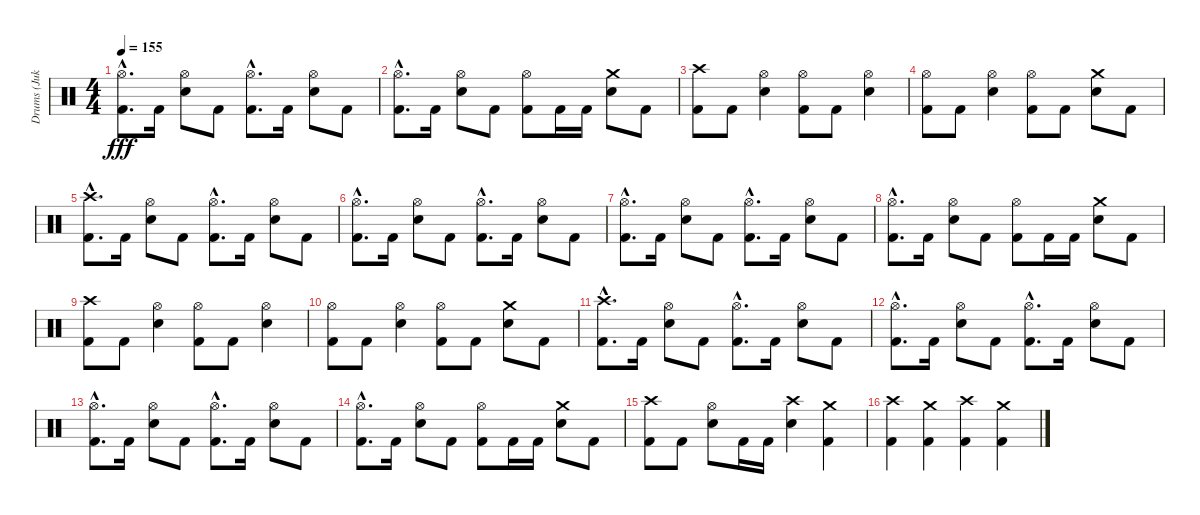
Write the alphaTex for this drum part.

\track ("Drums (Jukka)" "Drums (Juk") {instrument percussion}
\staff {score}
\articulation defaults
\ts (4 4)
\tempo 155
\clef neutral
\ks c
("Kick (hit) 2"{hac} "Hi-Hat (open)"{hac}).8{d dy fff} "Kick (hit) 2".16 ("Snare (hit) 2" "Hi-Hat (open)").8 "Kick (hit) 2".8 ("Kick (hit) 2"{hac} "Hi-Hat (open)"{hac}).8{d} "Kick (hit) 2".16 ("Snare (hit) 2" "Hi-Hat (open)").8 "Kick (hit) 2".8 |
("Kick (hit) 2"{hac} "Hi-Hat (open)"{hac}).8{d} "Kick (hit) 2".16 ("Snare (hit) 2" "Hi-Hat (open)").8 "Kick (hit) 2".8 ("Kick (hit) 2" "Hi-Hat (open)").8 "Kick (hit) 2".16 "Kick (hit) 2".16 ("Snare (hit) 2" "Crash medium (hit)").8 "Kick (hit) 2".8 |
("Kick (hit) 2" "Crash high (hit)").8 "Kick (hit) 2".8 ("Snare (hit) 2" "Hi-Hat (open)").4 ("Kick (hit) 2" "Hi-Hat (open)").8 "Kick (hit) 2".8 ("Snare (hit) 2" "Hi-Hat (open)").4 |
("Kick (hit) 2" "Hi-Hat (open)").8 "Kick (hit) 2".8 ("Snare (hit) 2" "Hi-Hat (open)").4 ("Kick (hit) 2" "Hi-Hat (open)").8 "Kick (hit) 2".8 ("Snare (hit) 2" "Crash medium (hit)").8 "Kick (hit) 2".8 |
("Kick (hit) 2"{hac} "Crash high (hit)"{hac}).8{d} "Kick (hit) 2".16 ("Snare (hit) 2" "Hi-Hat (open)").8 "Kick (hit) 2".8 ("Kick (hit) 2"{hac} "Hi-Hat (open)"{hac}).8{d} "Kick (hit) 2".16 ("Snare (hit) 2" "Hi-Hat (open)").8 "Kick (hit) 2".8 |
("Kick (hit) 2"{hac} "Hi-Hat (open)"{hac}).8{d} "Kick (hit) 2".16 ("Snare (hit) 2" "Hi-Hat (open)").8 "Kick (hit) 2".8 ("Kick (hit) 2"{hac} "Hi-Hat (open)"{hac}).8{d} "Kick (hit) 2".16 ("Snare (hit) 2" "Hi-Hat (open)").8 "Kick (hit) 2".8 |
("Kick (hit) 2"{hac} "Hi-Hat (open)"{hac}).8{d} "Kick (hit) 2".16 ("Snare (hit) 2" "Hi-Hat (open)").8 "Kick (hit) 2".8 ("Kick (hit) 2"{hac} "Hi-Hat (open)"{hac}).8{d} "Kick (hit) 2".16 ("Snare (hit) 2" "Hi-Hat (open)").8 "Kick (hit) 2".8 |
("Kick (hit) 2"{hac} "Hi-Hat (open)"{hac}).8{d} "Kick (hit) 2".16 ("Snare (hit) 2" "Hi-Hat (open)").8 "Kick (hit) 2".8 ("Kick (hit) 2" "Hi-Hat (open)").8 "Kick (hit) 2".16 "Kick (hit) 2".16 ("Snare (hit) 2" "Crash medium (hit)").8 "Kick (hit) 2".8 |
("Kick (hit) 2" "Crash high (hit)").8 "Kick (hit) 2".8 ("Snare (hit) 2" "Hi-Hat (open)").4 ("Kick (hit) 2" "Hi-Hat (open)").8 "Kick (hit) 2".8 ("Snare (hit) 2" "Hi-Hat (open)").4 |
("Kick (hit) 2" "Hi-Hat (open)").8 "Kick (hit) 2".8 ("Snare (hit) 2" "Hi-Hat (open)").4 ("Kick (hit) 2" "Hi-Hat (open)").8 "Kick (hit) 2".8 ("Snare (hit) 2" "Crash medium (hit)").8 "Kick (hit) 2".8 |
("Kick (hit) 2"{hac} "Crash high (hit)"{hac}).8{d} "Kick (hit) 2".16 ("Snare (hit) 2" "Hi-Hat (open)").8 "Kick (hit) 2".8 ("Kick (hit) 2"{hac} "Hi-Hat (open)"{hac}).8{d} "Kick (hit) 2".16 ("Snare (hit) 2" "Hi-Hat (open)").8 "Kick (hit) 2".8 |
("Kick (hit) 2"{hac} "Hi-Hat (open)"{hac}).8{d} "Kick (hit) 2".16 ("Snare (hit) 2" "Hi-Hat (open)").8 "Kick (hit) 2".8 ("Kick (hit) 2"{hac} "Hi-Hat (open)"{hac}).8{d} "Kick (hit) 2".16 ("Snare (hit) 2" "Hi-Hat (open)").8 "Kick (hit) 2".8 |
("Kick (hit) 2"{hac} "Hi-Hat (open)"{hac}).8{d} "Kick (hit) 2".16 ("Snare (hit) 2" "Hi-Hat (open)").8 "Kick (hit) 2".8 ("Kick (hit) 2"{hac} "Hi-Hat (open)"{hac}).8{d} "Kick (hit) 2".16 ("Snare (hit) 2" "Hi-Hat (open)").8 "Kick (hit) 2".8 |
("Kick (hit) 2"{hac} "Hi-Hat (open)"{hac}).8{d} "Kick (hit) 2".16 ("Snare (hit) 2" "Hi-Hat (open)").8 "Kick (hit) 2".8 ("Kick (hit) 2" "Hi-Hat (open)").8 "Kick (hit) 2".16 "Kick (hit) 2".16 ("Snare (hit) 2" "Crash medium (hit)").8 "Kick (hit) 2".8 |
("Kick (hit) 2" "Crash high (hit)").8 "Kick (hit) 2".8 ("Snare (hit) 2" "Hi-Hat (open)").8 "Kick (hit) 2".16 "Kick (hit) 2".16 ("Snare (hit) 2" "Crash high (hit)").4 ("Kick (hit) 2" "Crash medium (hit)").4 |
("Kick (hit) 2" "Crash high (hit)").4 ("Kick (hit) 2" "Crash medium (hit)").4 ("Kick (hit) 2" "Crash high (hit)").4 ("Kick (hit) 2" "Crash medium (hit)").4
